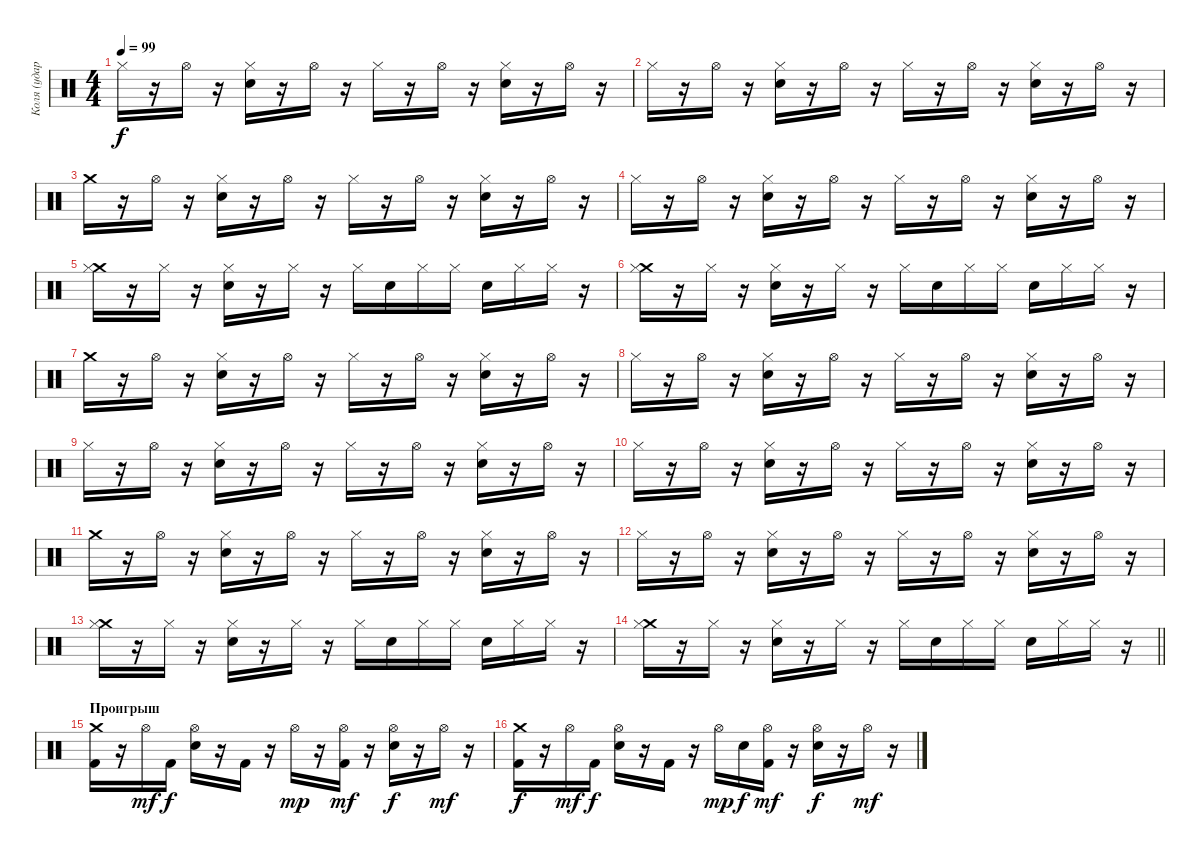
\track ("Коля (ударные)" "Коля (удар") {instrument percussion}
\staff {score}
\articulation defaults
\ts (4 4)
\tempo 99
\clef neutral
\ks c "Hi-Hat (closed)".16{dy f}
r.16 "Hi-Hat (open)".16 r.16 ("Electric Snare (hit)" "Hi-Hat (closed)").16 r.16 "Hi-Hat (open)".16 r.16 "Hi-Hat (closed)".16 r.16 "Hi-Hat (open)".16 r.16 ("Electric Snare (hit)" "Hi-Hat (closed)").16 r.16 "Hi-Hat (open)".16 r.16 |
"Hi-Hat (closed)".16 r.16 "Hi-Hat (open)".16 r.16 ("Electric Snare (hit)" "Hi-Hat (closed)").16 r.16 "Hi-Hat (open)".16 r.16 "Hi-Hat (closed)".16 r.16 "Hi-Hat (open)".16 r.16 ("Electric Snare (hit)" "Hi-Hat (closed)").16 r.16 "Hi-Hat (open)".16 r.16 |
"Crash medium (hit)".16 r.16 "Hi-Hat (open)".16 r.16 ("Electric Snare (hit)" "Hi-Hat (closed)").16 r.16 "Hi-Hat (open)".16 r.16 "Hi-Hat (closed)".16 r.16 "Hi-Hat (open)".16 r.16 ("Electric Snare (hit)" "Hi-Hat (closed)").16 r.16 "Hi-Hat (open)".16 r.16 |
"Hi-Hat (closed)".16 r.16 "Hi-Hat (open)".16 r.16 ("Electric Snare (hit)" "Hi-Hat (closed)").16 r.16 "Hi-Hat (open)".16 r.16 "Hi-Hat (closed)".16 r.16 "Hi-Hat (open)".16 r.16 ("Electric Snare (hit)" "Hi-Hat (closed)").16 r.16 "Hi-Hat (open)".16 r.16 |
("Crash medium (hit)" "Hi-Hat (closed)").16 r.16 "Hi-Hat (closed)".16 r.16 ("Electric Snare (hit)" "Hi-Hat (closed)").16 r.16 "Hi-Hat (closed)".16 r.16 "Hi-Hat (closed)".16 "Electric Snare (hit)".16 "Hi-Hat (closed)".16 "Hi-Hat (closed)".16 "Electric Snare (hit)".16 "Hi-Hat (closed)".16 "Hi-Hat (closed)".16 r.16 |
("Crash medium (hit)" "Hi-Hat (closed)").16 r.16 "Hi-Hat (closed)".16 r.16 ("Electric Snare (hit)" "Hi-Hat (closed)").16 r.16 "Hi-Hat (closed)".16 r.16 "Hi-Hat (closed)".16 "Electric Snare (hit)".16 "Hi-Hat (closed)".16 "Hi-Hat (closed)".16 "Electric Snare (hit)".16 "Hi-Hat (closed)".16 "Hi-Hat (closed)".16 r.16 |
"Crash medium (hit)".16 r.16 "Hi-Hat (open)".16 r.16 ("Electric Snare (hit)" "Hi-Hat (closed)").16 r.16 "Hi-Hat (open)".16 r.16 "Hi-Hat (closed)".16 r.16 "Hi-Hat (open)".16 r.16 ("Electric Snare (hit)" "Hi-Hat (closed)").16 r.16 "Hi-Hat (open)".16 r.16 |
"Hi-Hat (closed)".16 r.16 "Hi-Hat (open)".16 r.16 ("Electric Snare (hit)" "Hi-Hat (closed)").16 r.16 "Hi-Hat (open)".16 r.16 "Hi-Hat (closed)".16 r.16 "Hi-Hat (open)".16 r.16 ("Electric Snare (hit)" "Hi-Hat (closed)").16 r.16 "Hi-Hat (open)".16 r.16 |
"Hi-Hat (closed)".16 r.16 "Hi-Hat (open)".16 r.16 ("Electric Snare (hit)" "Hi-Hat (closed)").16 r.16 "Hi-Hat (open)".16 r.16 "Hi-Hat (closed)".16 r.16 "Hi-Hat (open)".16 r.16 ("Electric Snare (hit)" "Hi-Hat (closed)").16 r.16 "Hi-Hat (open)".16 r.16 |
"Hi-Hat (closed)".16 r.16 "Hi-Hat (open)".16 r.16 ("Electric Snare (hit)" "Hi-Hat (closed)").16 r.16 "Hi-Hat (open)".16 r.16 "Hi-Hat (closed)".16 r.16 "Hi-Hat (open)".16 r.16 ("Electric Snare (hit)" "Hi-Hat (closed)").16 r.16 "Hi-Hat (open)".16 r.16 |
"Crash medium (hit)".16 r.16 "Hi-Hat (open)".16 r.16 ("Electric Snare (hit)" "Hi-Hat (closed)").16 r.16 "Hi-Hat (open)".16 r.16 "Hi-Hat (closed)".16 r.16 "Hi-Hat (open)".16 r.16 ("Electric Snare (hit)" "Hi-Hat (closed)").16 r.16 "Hi-Hat (open)".16 r.16 |
"Hi-Hat (closed)".16 r.16 "Hi-Hat (open)".16 r.16 ("Electric Snare (hit)" "Hi-Hat (closed)").16 r.16 "Hi-Hat (open)".16 r.16 "Hi-Hat (closed)".16 r.16 "Hi-Hat (open)".16 r.16 ("Electric Snare (hit)" "Hi-Hat (closed)").16 r.16 "Hi-Hat (open)".16 r.16 |
("Crash medium (hit)" "Hi-Hat (closed)").16 r.16 "Hi-Hat (closed)".16 r.16 ("Electric Snare (hit)" "Hi-Hat (closed)").16 r.16 "Hi-Hat (closed)".16 r.16 "Hi-Hat (closed)".16 "Electric Snare (hit)".16 "Hi-Hat (closed)".16 "Hi-Hat (closed)".16 "Electric Snare (hit)".16 "Hi-Hat (closed)".16 "Hi-Hat (closed)".16 r.16 |
\barLineRight lightlight
("Crash medium (hit)" "Hi-Hat (closed)").16 r.16 "Hi-Hat (closed)".16 r.16 ("Electric Snare (hit)" "Hi-Hat (closed)").16 r.16 "Hi-Hat (closed)".16 r.16 "Hi-Hat (closed)".16 "Electric Snare (hit)".16 "Hi-Hat (closed)".16 "Hi-Hat (closed)".16 "Electric Snare (hit)".16 "Hi-Hat (closed)".16 "Hi-Hat (closed)".16 r.16 |
\section ("" "Проигрыш")
("Crash medium (hit)" "Kick (hit) 2").16 r.16 "Hi-Hat (open)".16{dy mf} "Kick (hit) 2".16{dy f} ("Electric Snare (hit)" "Hi-Hat (open)").16 r.16 "Kick (hit) 2".16 r.16 "Hi-Hat (open)".16{dy mp} r.16 ("Kick (hit) 2" "Hi-Hat (open)").16{dy mf} r.16 ("Electric Snare (hit)" "Hi-Hat (open)").16{dy f} r.16 "Hi-Hat (open)".16{dy mf} r.16 |
("Crash medium (hit)" "Kick (hit) 2").16{dy f} r.16 "Hi-Hat (open)".16{dy mf} "Kick (hit) 2".16{dy f} ("Electric Snare (hit)" "Hi-Hat (open)").16 r.16 "Kick (hit) 2".16 r.16 "Hi-Hat (open)".16{dy mp} "Electric Snare (hit)".16{dy f} ("Kick (hit) 2" "Hi-Hat (open)").16{dy mf} r.16 ("Electric Snare (hit)" "Hi-Hat (open)").16{dy f} r.16 "Hi-Hat (open)".16{dy mf} r.16
